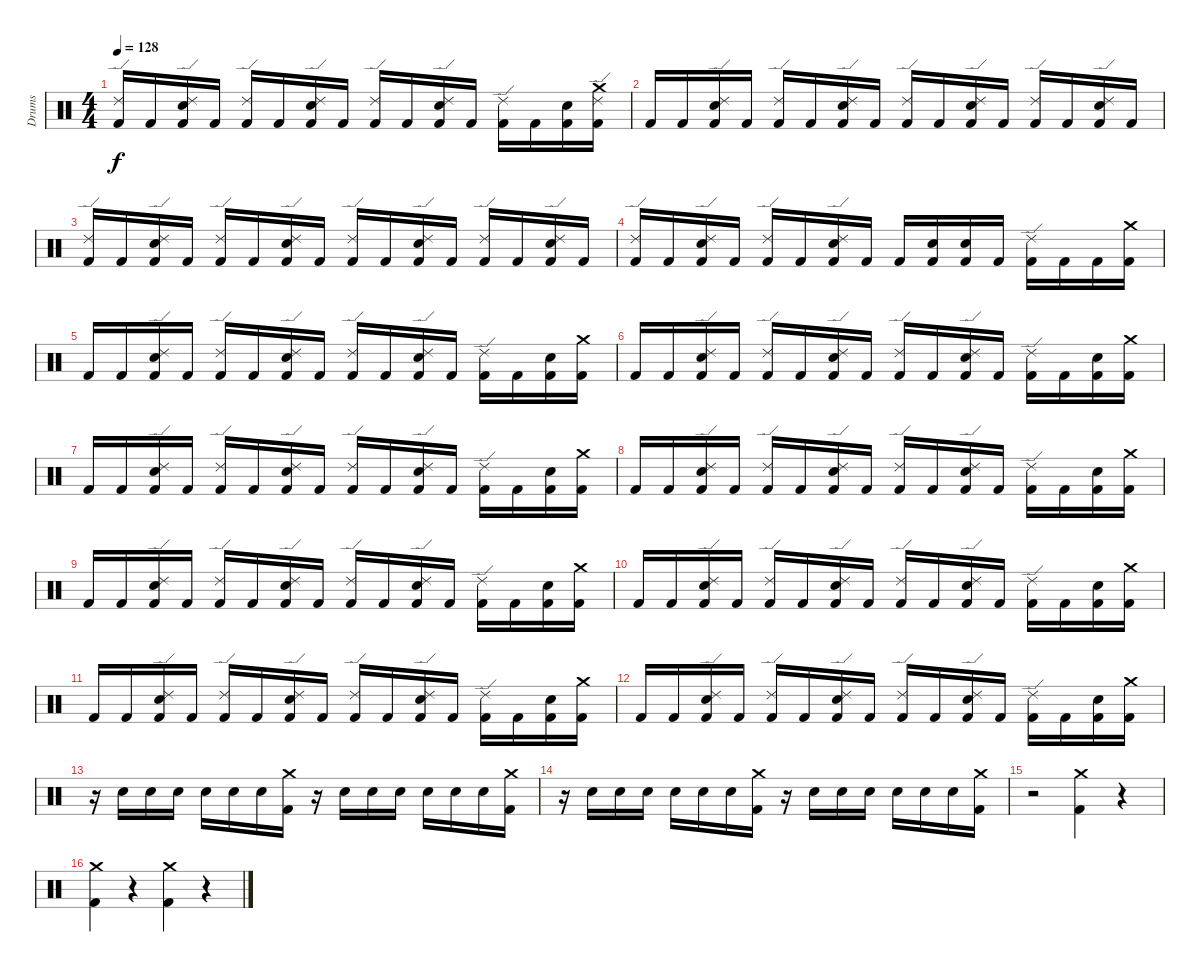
\track ("Drums" "Drums") {instrument percussion}
\staff {score}
\articulation defaults
\ts (4 4)
\tempo 128
\clef neutral
\ks c
("Ride (edge) 2" "Kick (hit) 2").16{dy f} "Kick (hit) 2".16 ("Ride (edge) 2" "Snare (hit) 2" "Kick (hit) 2").16 "Kick (hit) 2".16 ("Ride (edge) 2" "Kick (hit) 2").16 "Kick (hit) 2".16 ("Ride (edge) 2" "Snare (hit) 2" "Kick (hit) 2").16 "Kick (hit) 2".16 ("Ride (edge) 2" "Kick (hit) 2").16 "Kick (hit) 2".16 ("Ride (edge) 2" "Snare (hit) 2" "Kick (hit) 2").16 "Kick (hit) 2".16 ("Ride (edge) 2" "Kick (hit) 2").16 "Kick (hit) 2".16 ("Snare (hit) 2" "Kick (hit) 2").16 ("Crash medium (hit)" "Ride (edge) 2" "Kick (hit) 2").16 |
"Kick (hit) 2".16 "Kick (hit) 2".16 ("Ride (edge) 2" "Snare (hit) 2" "Kick (hit) 2").16 "Kick (hit) 2".16 ("Ride (edge) 2" "Kick (hit) 2").16 "Kick (hit) 2".16 ("Ride (edge) 2" "Snare (hit) 2" "Kick (hit) 2").16 "Kick (hit) 2".16 ("Ride (edge) 2" "Kick (hit) 2").16 "Kick (hit) 2".16 ("Ride (edge) 2" "Snare (hit) 2" "Kick (hit) 2").16 "Kick (hit) 2".16 ("Ride (edge) 2" "Kick (hit) 2").16 "Kick (hit) 2".16 ("Ride (edge) 2" "Snare (hit) 2" "Kick (hit) 2").16 "Kick (hit) 2".16 |
("Ride (edge) 2" "Kick (hit) 2").16 "Kick (hit) 2".16 ("Ride (edge) 2" "Snare (hit) 2" "Kick (hit) 2").16 "Kick (hit) 2".16 ("Ride (edge) 2" "Kick (hit) 2").16 "Kick (hit) 2".16 ("Ride (edge) 2" "Snare (hit) 2" "Kick (hit) 2").16 "Kick (hit) 2".16 ("Ride (edge) 2" "Kick (hit) 2").16 "Kick (hit) 2".16 ("Ride (edge) 2" "Snare (hit) 2" "Kick (hit) 2").16 "Kick (hit) 2".16 ("Ride (edge) 2" "Kick (hit) 2").16 "Kick (hit) 2".16 ("Ride (edge) 2" "Snare (hit) 2" "Kick (hit) 2").16 "Kick (hit) 2".16 |
("Ride (edge) 2" "Kick (hit) 2").16 "Kick (hit) 2".16 ("Ride (edge) 2" "Snare (hit) 2" "Kick (hit) 2").16 "Kick (hit) 2".16 ("Ride (edge) 2" "Kick (hit) 2").16 "Kick (hit) 2".16 ("Ride (edge) 2" "Snare (hit) 2" "Kick (hit) 2").16 "Kick (hit) 2".16 "Kick (hit) 2".16 ("Snare (hit) 2" "Kick (hit) 2").16 ("Snare (hit) 2" "Kick (hit) 2").16 "Kick (hit) 2".16 ("Ride (edge) 2" "Kick (hit) 2").16 "Kick (hit) 2".16 "Kick (hit) 2".16 ("Crash medium (hit)" "Kick (hit) 2").16 |
"Kick (hit) 2".16 "Kick (hit) 2".16 ("Ride (edge) 2" "Snare (hit) 2" "Kick (hit) 2").16 "Kick (hit) 2".16 ("Ride (edge) 2" "Kick (hit) 2").16 "Kick (hit) 2".16 ("Ride (edge) 2" "Snare (hit) 2" "Kick (hit) 2").16 "Kick (hit) 2".16 ("Ride (edge) 2" "Kick (hit) 2").16 "Kick (hit) 2".16 ("Ride (edge) 2" "Snare (hit) 2" "Kick (hit) 2").16 "Kick (hit) 2".16 ("Ride (edge) 2" "Kick (hit) 2").16 "Kick (hit) 2".16 ("Snare (hit) 2" "Kick (hit) 2").16 ("Crash medium (hit)" "Kick (hit) 2").16 |
"Kick (hit) 2".16 "Kick (hit) 2".16 ("Ride (edge) 2" "Snare (hit) 2" "Kick (hit) 2").16 "Kick (hit) 2".16 ("Ride (edge) 2" "Kick (hit) 2").16 "Kick (hit) 2".16 ("Ride (edge) 2" "Snare (hit) 2" "Kick (hit) 2").16 "Kick (hit) 2".16 ("Ride (edge) 2" "Kick (hit) 2").16 "Kick (hit) 2".16 ("Ride (edge) 2" "Snare (hit) 2" "Kick (hit) 2").16 "Kick (hit) 2".16 ("Ride (edge) 2" "Kick (hit) 2").16 "Kick (hit) 2".16 ("Snare (hit) 2" "Kick (hit) 2").16 ("Crash medium (hit)" "Kick (hit) 2").16 |
"Kick (hit) 2".16 "Kick (hit) 2".16 ("Ride (edge) 2" "Snare (hit) 2" "Kick (hit) 2").16 "Kick (hit) 2".16 ("Ride (edge) 2" "Kick (hit) 2").16 "Kick (hit) 2".16 ("Ride (edge) 2" "Snare (hit) 2" "Kick (hit) 2").16 "Kick (hit) 2".16 ("Ride (edge) 2" "Kick (hit) 2").16 "Kick (hit) 2".16 ("Ride (edge) 2" "Snare (hit) 2" "Kick (hit) 2").16 "Kick (hit) 2".16 ("Ride (edge) 2" "Kick (hit) 2").16 "Kick (hit) 2".16 ("Snare (hit) 2" "Kick (hit) 2").16 ("Crash medium (hit)" "Kick (hit) 2").16 |
"Kick (hit) 2".16 "Kick (hit) 2".16 ("Ride (edge) 2" "Snare (hit) 2" "Kick (hit) 2").16 "Kick (hit) 2".16 ("Ride (edge) 2" "Kick (hit) 2").16 "Kick (hit) 2".16 ("Ride (edge) 2" "Snare (hit) 2" "Kick (hit) 2").16 "Kick (hit) 2".16 ("Ride (edge) 2" "Kick (hit) 2").16 "Kick (hit) 2".16 ("Ride (edge) 2" "Snare (hit) 2" "Kick (hit) 2").16 "Kick (hit) 2".16 ("Ride (edge) 2" "Kick (hit) 2").16 "Kick (hit) 2".16 ("Snare (hit) 2" "Kick (hit) 2").16 ("Crash medium (hit)" "Kick (hit) 2").16 |
"Kick (hit) 2".16 "Kick (hit) 2".16 ("Ride (edge) 2" "Snare (hit) 2" "Kick (hit) 2").16 "Kick (hit) 2".16 ("Ride (edge) 2" "Kick (hit) 2").16 "Kick (hit) 2".16 ("Ride (edge) 2" "Snare (hit) 2" "Kick (hit) 2").16 "Kick (hit) 2".16 ("Ride (edge) 2" "Kick (hit) 2").16 "Kick (hit) 2".16 ("Ride (edge) 2" "Snare (hit) 2" "Kick (hit) 2").16 "Kick (hit) 2".16 ("Ride (edge) 2" "Kick (hit) 2").16 "Kick (hit) 2".16 ("Snare (hit) 2" "Kick (hit) 2").16 ("Crash medium (hit)" "Kick (hit) 2").16 |
"Kick (hit) 2".16 "Kick (hit) 2".16 ("Ride (edge) 2" "Snare (hit) 2" "Kick (hit) 2").16 "Kick (hit) 2".16 ("Ride (edge) 2" "Kick (hit) 2").16 "Kick (hit) 2".16 ("Ride (edge) 2" "Snare (hit) 2" "Kick (hit) 2").16 "Kick (hit) 2".16 ("Ride (edge) 2" "Kick (hit) 2").16 "Kick (hit) 2".16 ("Ride (edge) 2" "Snare (hit) 2" "Kick (hit) 2").16 "Kick (hit) 2".16 ("Ride (edge) 2" "Kick (hit) 2").16 "Kick (hit) 2".16 ("Snare (hit) 2" "Kick (hit) 2").16 ("Crash medium (hit)" "Kick (hit) 2").16 |
"Kick (hit) 2".16 "Kick (hit) 2".16 ("Ride (edge) 2" "Snare (hit) 2" "Kick (hit) 2").16 "Kick (hit) 2".16 ("Ride (edge) 2" "Kick (hit) 2").16 "Kick (hit) 2".16 ("Ride (edge) 2" "Snare (hit) 2" "Kick (hit) 2").16 "Kick (hit) 2".16 ("Ride (edge) 2" "Kick (hit) 2").16 "Kick (hit) 2".16 ("Ride (edge) 2" "Snare (hit) 2" "Kick (hit) 2").16 "Kick (hit) 2".16 ("Ride (edge) 2" "Kick (hit) 2").16 "Kick (hit) 2".16 ("Snare (hit) 2" "Kick (hit) 2").16 ("Crash medium (hit)" "Kick (hit) 2").16 |
"Kick (hit) 2".16 "Kick (hit) 2".16 ("Ride (edge) 2" "Snare (hit) 2" "Kick (hit) 2").16 "Kick (hit) 2".16 ("Ride (edge) 2" "Kick (hit) 2").16 "Kick (hit) 2".16 ("Ride (edge) 2" "Snare (hit) 2" "Kick (hit) 2").16 "Kick (hit) 2".16 ("Ride (edge) 2" "Kick (hit) 2").16 "Kick (hit) 2".16 ("Ride (edge) 2" "Snare (hit) 2" "Kick (hit) 2").16 "Kick (hit) 2".16 ("Ride (edge) 2" "Kick (hit) 2").16 "Kick (hit) 2".16 ("Snare (hit) 2" "Kick (hit) 2").16 ("Crash medium (hit)" "Kick (hit) 2").16 |
r.16 "Snare (hit) 2".16 "Snare (hit) 2".16 "Snare (hit) 2".16 "Snare (hit) 2".16 "Snare (hit) 2".16 "Snare (hit) 2".16 ("Crash medium (hit)" "Kick (hit) 2").16 r.16 "Snare (hit) 2".16 "Snare (hit) 2".16 "Snare (hit) 2".16 "Snare (hit) 2".16 "Snare (hit) 2".16 "Snare (hit) 2".16 ("Crash medium (hit)" "Kick (hit) 2").16 |
r.16 "Snare (hit) 2".16 "Snare (hit) 2".16 "Snare (hit) 2".16 "Snare (hit) 2".16 "Snare (hit) 2".16 "Snare (hit) 2".16 ("Crash medium (hit)" "Kick (hit) 2").16 r.16 "Snare (hit) 2".16 "Snare (hit) 2".16 "Snare (hit) 2".16 "Snare (hit) 2".16 "Snare (hit) 2".16 "Snare (hit) 2".16 ("Crash medium (hit)" "Kick (hit) 2").16 |
r.2 ("Crash medium (hit)" "Kick (hit) 2").4 r.4 |
("Crash medium (hit)" "Kick (hit) 2").4 r.4 ("Crash medium (hit)" "Kick (hit) 2").4 r.4
